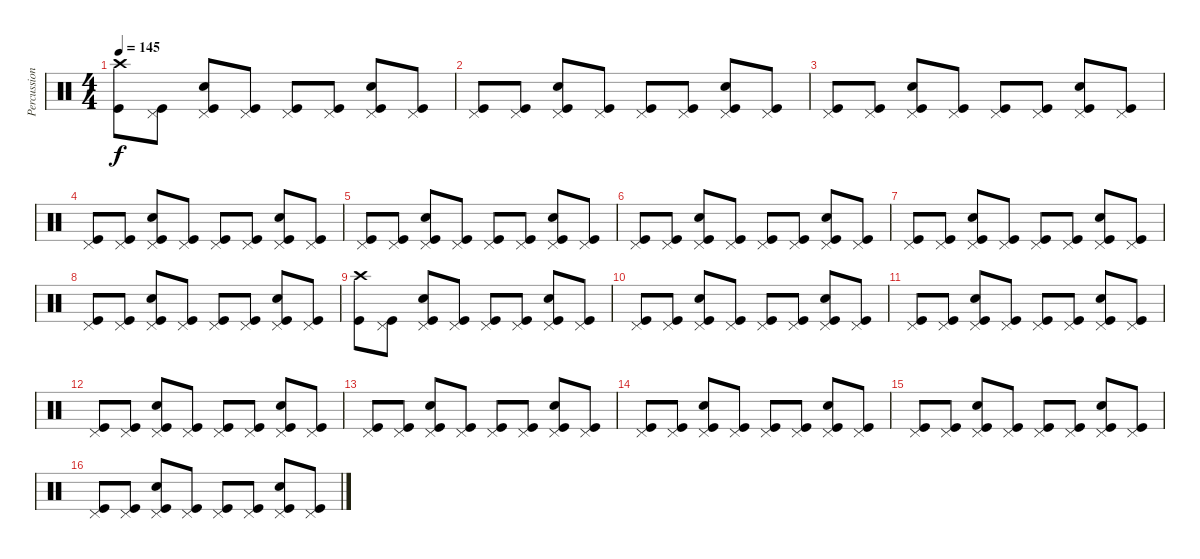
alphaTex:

\track ("Percussion" "Percussion") {instrument percussion}
\staff {score}
\articulation defaults
\ts (4 4)
\tempo 145
\clef neutral
\ks c
("Crash high (hit)" "Kick (hit)").8{dy f} ("Pedal Hi-Hat (hit)" "Kick (hit)").8 ("Pedal Hi-Hat (hit)" "Snare (hit) 2" "Kick (hit)").8 ("Pedal Hi-Hat (hit)" "Kick (hit)").8 ("Pedal Hi-Hat (hit)" "Kick (hit)").8 ("Pedal Hi-Hat (hit)" "Kick (hit)").8 ("Pedal Hi-Hat (hit)" "Snare (hit) 2" "Kick (hit)").8 ("Pedal Hi-Hat (hit)" "Kick (hit)").8 |
("Pedal Hi-Hat (hit)" "Kick (hit)").8 ("Pedal Hi-Hat (hit)" "Kick (hit)").8 ("Pedal Hi-Hat (hit)" "Snare (hit) 2" "Kick (hit)").8 ("Pedal Hi-Hat (hit)" "Kick (hit)").8 ("Pedal Hi-Hat (hit)" "Kick (hit)").8 ("Pedal Hi-Hat (hit)" "Kick (hit)").8 ("Pedal Hi-Hat (hit)" "Snare (hit) 2" "Kick (hit)").8 ("Pedal Hi-Hat (hit)" "Kick (hit)").8 |
("Pedal Hi-Hat (hit)" "Kick (hit)").8 ("Pedal Hi-Hat (hit)" "Kick (hit)").8 ("Pedal Hi-Hat (hit)" "Snare (hit) 2" "Kick (hit)").8 ("Pedal Hi-Hat (hit)" "Kick (hit)").8 ("Pedal Hi-Hat (hit)" "Kick (hit)").8 ("Pedal Hi-Hat (hit)" "Kick (hit)").8 ("Pedal Hi-Hat (hit)" "Snare (hit) 2" "Kick (hit)").8 ("Pedal Hi-Hat (hit)" "Kick (hit)").8 |
("Pedal Hi-Hat (hit)" "Kick (hit)").8 ("Pedal Hi-Hat (hit)" "Kick (hit)").8 ("Pedal Hi-Hat (hit)" "Snare (hit) 2" "Kick (hit)").8 ("Pedal Hi-Hat (hit)" "Kick (hit)").8 ("Pedal Hi-Hat (hit)" "Kick (hit)").8 ("Pedal Hi-Hat (hit)" "Kick (hit)").8 ("Pedal Hi-Hat (hit)" "Snare (hit) 2" "Kick (hit)").8 ("Pedal Hi-Hat (hit)" "Kick (hit)").8 |
("Pedal Hi-Hat (hit)" "Kick (hit)").8 ("Pedal Hi-Hat (hit)" "Kick (hit)").8 ("Pedal Hi-Hat (hit)" "Snare (hit) 2" "Kick (hit)").8 ("Pedal Hi-Hat (hit)" "Kick (hit)").8 ("Pedal Hi-Hat (hit)" "Kick (hit)").8 ("Pedal Hi-Hat (hit)" "Kick (hit)").8 ("Pedal Hi-Hat (hit)" "Snare (hit) 2" "Kick (hit)").8 ("Pedal Hi-Hat (hit)" "Kick (hit)").8 |
("Pedal Hi-Hat (hit)" "Kick (hit)").8 ("Pedal Hi-Hat (hit)" "Kick (hit)").8 ("Pedal Hi-Hat (hit)" "Snare (hit) 2" "Kick (hit)").8 ("Pedal Hi-Hat (hit)" "Kick (hit)").8 ("Pedal Hi-Hat (hit)" "Kick (hit)").8 ("Pedal Hi-Hat (hit)" "Kick (hit)").8 ("Pedal Hi-Hat (hit)" "Snare (hit) 2" "Kick (hit)").8 ("Pedal Hi-Hat (hit)" "Kick (hit)").8 |
("Pedal Hi-Hat (hit)" "Kick (hit)").8 ("Pedal Hi-Hat (hit)" "Kick (hit)").8 ("Pedal Hi-Hat (hit)" "Snare (hit) 2" "Kick (hit)").8 ("Pedal Hi-Hat (hit)" "Kick (hit)").8 ("Pedal Hi-Hat (hit)" "Kick (hit)").8 ("Pedal Hi-Hat (hit)" "Kick (hit)").8 ("Pedal Hi-Hat (hit)" "Snare (hit) 2" "Kick (hit)").8 ("Pedal Hi-Hat (hit)" "Kick (hit)").8 |
("Pedal Hi-Hat (hit)" "Kick (hit)").8 ("Pedal Hi-Hat (hit)" "Kick (hit)").8 ("Pedal Hi-Hat (hit)" "Snare (hit) 2" "Kick (hit)").8 ("Pedal Hi-Hat (hit)" "Kick (hit)").8 ("Pedal Hi-Hat (hit)" "Kick (hit)").8 ("Pedal Hi-Hat (hit)" "Kick (hit)").8 ("Pedal Hi-Hat (hit)" "Snare (hit) 2" "Kick (hit)").8 ("Pedal Hi-Hat (hit)" "Kick (hit)").8 |
("Crash high (hit)" "Kick (hit)").8 ("Pedal Hi-Hat (hit)" "Kick (hit)").8 ("Pedal Hi-Hat (hit)" "Snare (hit) 2" "Kick (hit)").8 ("Pedal Hi-Hat (hit)" "Kick (hit)").8 ("Pedal Hi-Hat (hit)" "Kick (hit)").8 ("Pedal Hi-Hat (hit)" "Kick (hit)").8 ("Pedal Hi-Hat (hit)" "Snare (hit) 2" "Kick (hit)").8 ("Pedal Hi-Hat (hit)" "Kick (hit)").8 |
("Pedal Hi-Hat (hit)" "Kick (hit)").8 ("Pedal Hi-Hat (hit)" "Kick (hit)").8 ("Pedal Hi-Hat (hit)" "Snare (hit) 2" "Kick (hit)").8 ("Pedal Hi-Hat (hit)" "Kick (hit)").8 ("Pedal Hi-Hat (hit)" "Kick (hit)").8 ("Pedal Hi-Hat (hit)" "Kick (hit)").8 ("Pedal Hi-Hat (hit)" "Snare (hit) 2" "Kick (hit)").8 ("Pedal Hi-Hat (hit)" "Kick (hit)").8 |
("Pedal Hi-Hat (hit)" "Kick (hit)").8 ("Pedal Hi-Hat (hit)" "Kick (hit)").8 ("Pedal Hi-Hat (hit)" "Snare (hit) 2" "Kick (hit)").8 ("Pedal Hi-Hat (hit)" "Kick (hit)").8 ("Pedal Hi-Hat (hit)" "Kick (hit)").8 ("Pedal Hi-Hat (hit)" "Kick (hit)").8 ("Pedal Hi-Hat (hit)" "Snare (hit) 2" "Kick (hit)").8 ("Pedal Hi-Hat (hit)" "Kick (hit)").8 |
("Pedal Hi-Hat (hit)" "Kick (hit)").8 ("Pedal Hi-Hat (hit)" "Kick (hit)").8 ("Pedal Hi-Hat (hit)" "Snare (hit) 2" "Kick (hit)").8 ("Pedal Hi-Hat (hit)" "Kick (hit)").8 ("Pedal Hi-Hat (hit)" "Kick (hit)").8 ("Pedal Hi-Hat (hit)" "Kick (hit)").8 ("Pedal Hi-Hat (hit)" "Snare (hit) 2" "Kick (hit)").8 ("Pedal Hi-Hat (hit)" "Kick (hit)").8 |
("Pedal Hi-Hat (hit)" "Kick (hit)").8 ("Pedal Hi-Hat (hit)" "Kick (hit)").8 ("Pedal Hi-Hat (hit)" "Snare (hit) 2" "Kick (hit)").8 ("Pedal Hi-Hat (hit)" "Kick (hit)").8 ("Pedal Hi-Hat (hit)" "Kick (hit)").8 ("Pedal Hi-Hat (hit)" "Kick (hit)").8 ("Pedal Hi-Hat (hit)" "Snare (hit) 2" "Kick (hit)").8 ("Pedal Hi-Hat (hit)" "Kick (hit)").8 |
("Pedal Hi-Hat (hit)" "Kick (hit)").8 ("Pedal Hi-Hat (hit)" "Kick (hit)").8 ("Pedal Hi-Hat (hit)" "Snare (hit) 2" "Kick (hit)").8 ("Pedal Hi-Hat (hit)" "Kick (hit)").8 ("Pedal Hi-Hat (hit)" "Kick (hit)").8 ("Pedal Hi-Hat (hit)" "Kick (hit)").8 ("Pedal Hi-Hat (hit)" "Snare (hit) 2" "Kick (hit)").8 ("Pedal Hi-Hat (hit)" "Kick (hit)").8 |
("Pedal Hi-Hat (hit)" "Kick (hit)").8 ("Pedal Hi-Hat (hit)" "Kick (hit)").8 ("Pedal Hi-Hat (hit)" "Snare (hit) 2" "Kick (hit)").8 ("Pedal Hi-Hat (hit)" "Kick (hit)").8 ("Pedal Hi-Hat (hit)" "Kick (hit)").8 ("Pedal Hi-Hat (hit)" "Kick (hit)").8 ("Pedal Hi-Hat (hit)" "Snare (hit) 2" "Kick (hit)").8 ("Pedal Hi-Hat (hit)" "Kick (hit)").8 |
("Pedal Hi-Hat (hit)" "Kick (hit)").8 ("Pedal Hi-Hat (hit)" "Kick (hit)").8 ("Pedal Hi-Hat (hit)" "Snare (hit) 2" "Kick (hit)").8 ("Pedal Hi-Hat (hit)" "Kick (hit)").8 ("Pedal Hi-Hat (hit)" "Kick (hit)").8 ("Pedal Hi-Hat (hit)" "Kick (hit)").8 ("Pedal Hi-Hat (hit)" "Snare (hit) 2" "Kick (hit)").8 ("Pedal Hi-Hat (hit)" "Kick (hit)").8
